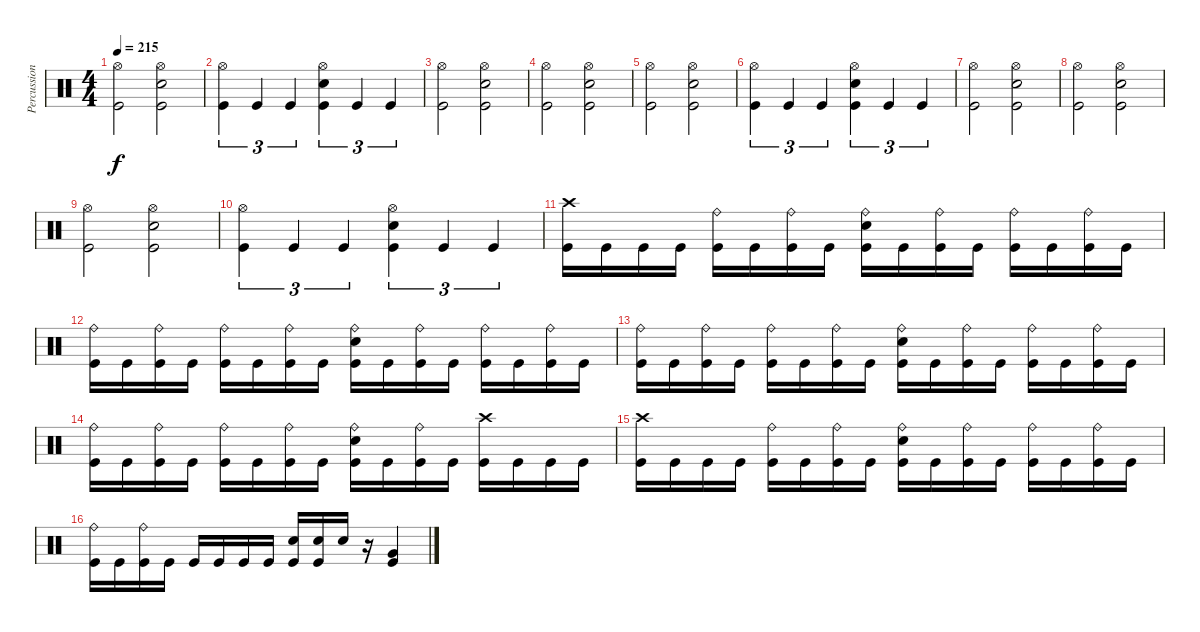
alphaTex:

\track ("Percussion" "Percussion") {instrument percussion}
\staff {score}
\articulation defaults
\ts (4 4)
\tempo 215
\clef neutral
\ks c
("Hi-Hat (open)" "Kick (hit)").2{dy f} ("Hi-Hat (open)" "Electric Snare (hit)" "Kick (hit)").2 |
("Hi-Hat (open)" "Kick (hit)").4{tu (3 2)} "Kick (hit)".4{tu (3 2)} "Kick (hit)".4{tu (3 2)} ("Hi-Hat (open)" "Electric Snare (hit)" "Kick (hit)").4{tu (3 2)} "Kick (hit)".4{tu (3 2)} "Kick (hit)".4{tu (3 2)} |
("Hi-Hat (open)" "Kick (hit)").2 ("Hi-Hat (open)" "Electric Snare (hit)" "Kick (hit)").2 |
("Hi-Hat (open)" "Kick (hit)").2 ("Hi-Hat (open)" "Electric Snare (hit)" "Kick (hit)").2 |
("Hi-Hat (open)" "Kick (hit)").2 ("Hi-Hat (open)" "Electric Snare (hit)" "Kick (hit)").2 |
("Hi-Hat (open)" "Kick (hit)").4{tu (3 2)} "Kick (hit)".4{tu (3 2)} "Kick (hit)".4{tu (3 2)} ("Hi-Hat (open)" "Electric Snare (hit)" "Kick (hit)").4{tu (3 2)} "Kick (hit)".4{tu (3 2)} "Kick (hit)".4{tu (3 2)} |
("Hi-Hat (open)" "Kick (hit)").2 ("Hi-Hat (open)" "Electric Snare (hit)" "Kick (hit)").2 |
("Hi-Hat (open)" "Kick (hit)").2 ("Hi-Hat (open)" "Electric Snare (hit)" "Kick (hit)").2 |
("Hi-Hat (open)" "Kick (hit)").2 ("Hi-Hat (open)" "Electric Snare (hit)" "Kick (hit)").2 |
("Hi-Hat (open)" "Kick (hit)").4{tu (3 2)} "Kick (hit)".4{tu (3 2)} "Kick (hit)".4{tu (3 2)} ("Hi-Hat (open)" "Electric Snare (hit)" "Kick (hit)").4{tu (3 2)} "Kick (hit)".4{tu (3 2)} "Kick (hit)".4{tu (3 2)} |
("Crash high (hit)" "Kick (hit)").16 "Kick (hit)".16 "Kick (hit)".16 "Kick (hit)".16 ("Ride (bell)" "Kick (hit)").16 "Kick (hit)".16 ("Ride (bell)" "Kick (hit)").16 "Kick (hit)".16 ("Ride (bell)" "Electric Snare (hit)" "Kick (hit)").16 "Kick (hit)".16 ("Ride (bell)" "Kick (hit)").16 "Kick (hit)".16 ("Ride (bell)" "Kick (hit)").16 "Kick (hit)".16 ("Ride (bell)" "Kick (hit)").16 "Kick (hit)".16 |
("Ride (bell)" "Kick (hit)").16 "Kick (hit)".16 ("Ride (bell)" "Kick (hit)").16 "Kick (hit)".16 ("Ride (bell)" "Kick (hit)").16 "Kick (hit)".16 ("Ride (bell)" "Kick (hit)").16 "Kick (hit)".16 ("Ride (bell)" "Electric Snare (hit)" "Kick (hit)").16 "Kick (hit)".16 ("Ride (bell)" "Kick (hit)").16 "Kick (hit)".16 ("Ride (bell)" "Kick (hit)").16 "Kick (hit)".16 ("Ride (bell)" "Kick (hit)").16 "Kick (hit)".16 |
("Ride (bell)" "Kick (hit)").16 "Kick (hit)".16 ("Ride (bell)" "Kick (hit)").16 "Kick (hit)".16 ("Ride (bell)" "Kick (hit)").16 "Kick (hit)".16 ("Ride (bell)" "Kick (hit)").16 "Kick (hit)".16 ("Ride (bell)" "Electric Snare (hit)" "Kick (hit)").16 "Kick (hit)".16 ("Ride (bell)" "Kick (hit)").16 "Kick (hit)".16 ("Ride (bell)" "Kick (hit)").16 "Kick (hit)".16 ("Ride (bell)" "Kick (hit)").16 "Kick (hit)".16 |
("Ride (bell)" "Kick (hit)").16 "Kick (hit)".16 ("Ride (bell)" "Kick (hit)").16 "Kick (hit)".16 ("Ride (bell)" "Kick (hit)").16 "Kick (hit)".16 ("Ride (bell)" "Kick (hit)").16 "Kick (hit)".16 ("Ride (bell)" "Electric Snare (hit)" "Kick (hit)").16 "Kick (hit)".16 ("Ride (bell)" "Kick (hit)").16 "Kick (hit)".16 ("Crash high (hit)" "Kick (hit)").16 "Kick (hit)".16 "Kick (hit)".16 "Kick (hit)".16 |
("Crash high (hit)" "Kick (hit)").16 "Kick (hit)".16 "Kick (hit)".16 "Kick (hit)".16 ("Ride (bell)" "Kick (hit)").16 "Kick (hit)".16 ("Ride (bell)" "Kick (hit)").16 "Kick (hit)".16 ("Ride (bell)" "Electric Snare (hit)" "Kick (hit)").16 "Kick (hit)".16 ("Ride (bell)" "Kick (hit)").16 "Kick (hit)".16 ("Ride (bell)" "Kick (hit)").16 "Kick (hit)".16 ("Ride (bell)" "Kick (hit)").16 "Kick (hit)".16 |
("Ride (bell)" "Kick (hit)").16 "Kick (hit)".16 ("Ride (bell)" "Kick (hit)").16 "Kick (hit)".16 "Kick (hit)".16 "Kick (hit)".16 "Kick (hit)".16 "Kick (hit)".16 ("Electric Snare (hit)" "Kick (hit)").16 ("Electric Snare (hit)" "Kick (hit)").16 "Electric Snare (hit)".16 r.16 ("Very Low Tom (hit)" "Kick (hit)").4
